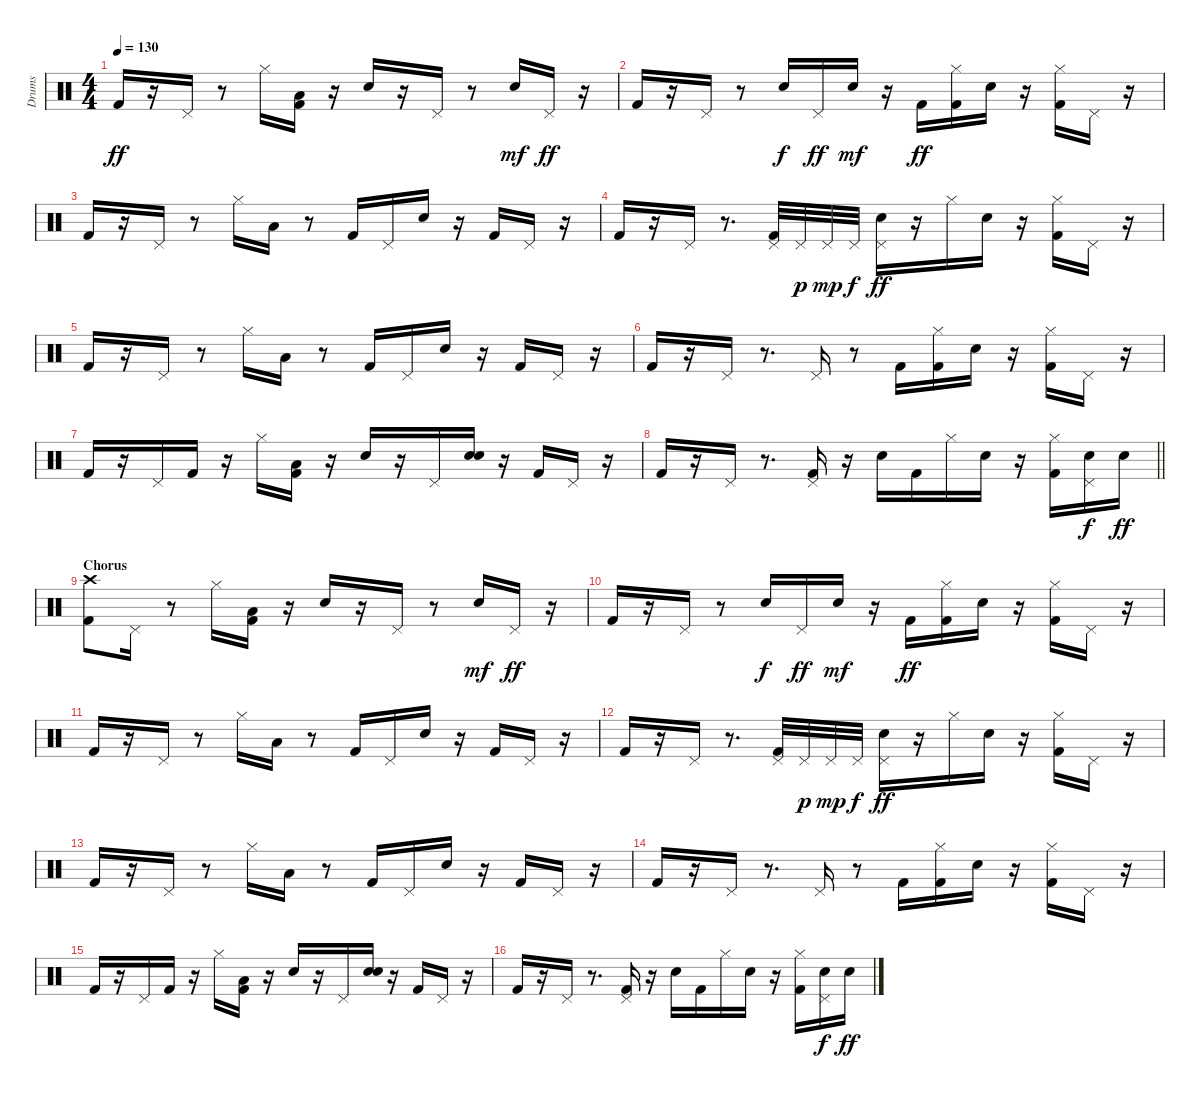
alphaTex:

\track ("Drums" "Drums") {instrument percussion}
\staff {score}
\articulation defaults
\ts (4 4)
\tempo 130
\clef neutral
\ks c "Kick (hit) 2".16{dy ff}
r.16 "Pedal Hi-Hat (hit)".16 r.8 "Hi-Hat (closed)".16 ("Kick (hit) 2" "Low Floor Tom (hit)").16 r.16 "Electric Snare (hit)".16 r.16 "Pedal Hi-Hat (hit)".16 r.8 "Snare (hit) 2".16{dy mf} "Pedal Hi-Hat (hit)".16{dy ff} r.16 |
"Kick (hit) 2".16 r.16 "Pedal Hi-Hat (hit)".16 r.8 "Snare (hit) 2".16{dy f} "Pedal Hi-Hat (hit)".16{dy ff} "Snare (hit) 2".16{dy mf} r.16 "Kick (hit) 2".16{dy ff} ("Kick (hit) 2" "Hi-Hat (closed)").16 "Electric Snare (hit)".16 r.16 ("Kick (hit) 2" "Hi-Hat (closed)").16 "Pedal Hi-Hat (hit)".16 r.16 |
"Kick (hit) 2".16 r.16 "Pedal Hi-Hat (hit)".16 r.8 "Hi-Hat (closed)".16 "Low Floor Tom (hit)".16 r.8 "Kick (hit) 2".16 "Pedal Hi-Hat (hit)".16 "Electric Snare (hit)".16 r.16 "Kick (hit) 2".16 "Pedal Hi-Hat (hit)".16 r.16 |
"Kick (hit) 2".16 r.16 "Pedal Hi-Hat (hit)".16 r.8{d} ("Kick (hit) 2" "Pedal Hi-Hat (hit)").32 "Pedal Hi-Hat (hit)".32{dy p} "Pedal Hi-Hat (hit)".32{dy mp} "Pedal Hi-Hat (hit)".32{dy f} ("Electric Snare (hit)" "Pedal Hi-Hat (hit)").16{dy ff} r.16 "Hi-Hat (closed)".16 "Electric Snare (hit)".16 r.16 ("Kick (hit) 2" "Hi-Hat (closed)").16 "Pedal Hi-Hat (hit)".16 r.16 |
"Kick (hit) 2".16 r.16 "Pedal Hi-Hat (hit)".16 r.8 "Hi-Hat (closed)".16 "Low Floor Tom (hit)".16 r.8 "Kick (hit) 2".16 "Pedal Hi-Hat (hit)".16 "Electric Snare (hit)".16 r.16 "Kick (hit) 2".16 "Pedal Hi-Hat (hit)".16 r.16 |
"Kick (hit) 2".16 r.16 "Pedal Hi-Hat (hit)".16 r.8{d} "Pedal Hi-Hat (hit)".16 r.8 "Kick (hit) 2".16 ("Kick (hit) 2" "Hi-Hat (closed)").16 "Electric Snare (hit)".16 r.16 ("Kick (hit) 2" "Hi-Hat (closed)").16 "Pedal Hi-Hat (hit)".16 r.16 |
"Kick (hit) 2".16 r.16 "Pedal Hi-Hat (hit)".16 "Kick (hit) 2".16 r.16 "Hi-Hat (closed)".16 ("Kick (hit) 2" "Low Floor Tom (hit)").16 r.16 "Electric Snare (hit)".16 r.16 "Pedal Hi-Hat (hit)".16 ("Snare (hit) 2" "Hand Clap (hit)").16 r.16 "Kick (hit) 2".16 "Pedal Hi-Hat (hit)".16 r.16 |
\barLineRight lightlight "Kick (hit) 2".16
r.16 "Pedal Hi-Hat (hit)".16 r.8{d} ("Kick (hit) 2" "Pedal Hi-Hat (hit)").16 r.16 "Electric Snare (hit)".16 "Kick (hit) 2".16 "Hi-Hat (closed)".16 "Electric Snare (hit)".16 r.16 ("Kick (hit) 2" "Hi-Hat (closed)").16 ("Electric Snare (hit)" "Pedal Hi-Hat (hit)").16{dy f} "Electric Snare (hit)".16{dy ff} |
\section ("" "Chorus")
("Kick (hit) 2" "Crash high (hit)").8 "Pedal Hi-Hat (hit)".16 r.8 "Hi-Hat (closed)".16 ("Kick (hit) 2" "Low Floor Tom (hit)").16 r.16 "Electric Snare (hit)".16 r.16 "Pedal Hi-Hat (hit)".16 r.8 "Snare (hit) 2".16{dy mf} "Pedal Hi-Hat (hit)".16{dy ff} r.16 |
"Kick (hit) 2".16 r.16 "Pedal Hi-Hat (hit)".16 r.8 "Snare (hit) 2".16{dy f} "Pedal Hi-Hat (hit)".16{dy ff} "Snare (hit) 2".16{dy mf} r.16 "Kick (hit) 2".16{dy ff} ("Kick (hit) 2" "Hi-Hat (closed)").16 "Electric Snare (hit)".16 r.16 ("Kick (hit) 2" "Hi-Hat (closed)").16 "Pedal Hi-Hat (hit)".16 r.16 |
"Kick (hit) 2".16 r.16 "Pedal Hi-Hat (hit)".16 r.8 "Hi-Hat (closed)".16 "Low Floor Tom (hit)".16 r.8 "Kick (hit) 2".16 "Pedal Hi-Hat (hit)".16 "Electric Snare (hit)".16 r.16 "Kick (hit) 2".16 "Pedal Hi-Hat (hit)".16 r.16 |
"Kick (hit) 2".16 r.16 "Pedal Hi-Hat (hit)".16 r.8{d} ("Kick (hit) 2" "Pedal Hi-Hat (hit)").32 "Pedal Hi-Hat (hit)".32{dy p} "Pedal Hi-Hat (hit)".32{dy mp} "Pedal Hi-Hat (hit)".32{dy f} ("Electric Snare (hit)" "Pedal Hi-Hat (hit)").16{dy ff} r.16 "Hi-Hat (closed)".16 "Electric Snare (hit)".16 r.16 ("Kick (hit) 2" "Hi-Hat (closed)").16 "Pedal Hi-Hat (hit)".16 r.16 |
"Kick (hit) 2".16 r.16 "Pedal Hi-Hat (hit)".16 r.8 "Hi-Hat (closed)".16 "Low Floor Tom (hit)".16 r.8 "Kick (hit) 2".16 "Pedal Hi-Hat (hit)".16 "Electric Snare (hit)".16 r.16 "Kick (hit) 2".16 "Pedal Hi-Hat (hit)".16 r.16 |
"Kick (hit) 2".16 r.16 "Pedal Hi-Hat (hit)".16 r.8{d} "Pedal Hi-Hat (hit)".16 r.8 "Kick (hit) 2".16 ("Kick (hit) 2" "Hi-Hat (closed)").16 "Electric Snare (hit)".16 r.16 ("Kick (hit) 2" "Hi-Hat (closed)").16 "Pedal Hi-Hat (hit)".16 r.16 |
"Kick (hit) 2".16 r.16 "Pedal Hi-Hat (hit)".16 "Kick (hit) 2".16 r.16 "Hi-Hat (closed)".16 ("Kick (hit) 2" "Low Floor Tom (hit)").16 r.16 "Electric Snare (hit)".16 r.16 "Pedal Hi-Hat (hit)".16 ("Snare (hit) 2" "Hand Clap (hit)").16 r.16 "Kick (hit) 2".16 "Pedal Hi-Hat (hit)".16 r.16 |
"Kick (hit) 2".16 r.16 "Pedal Hi-Hat (hit)".16 r.8{d} ("Kick (hit) 2" "Pedal Hi-Hat (hit)").16 r.16 "Electric Snare (hit)".16 "Kick (hit) 2".16 "Hi-Hat (closed)".16 "Electric Snare (hit)".16 r.16 ("Kick (hit) 2" "Hi-Hat (closed)").16 ("Electric Snare (hit)" "Pedal Hi-Hat (hit)").16{dy f} "Electric Snare (hit)".16{dy ff}
